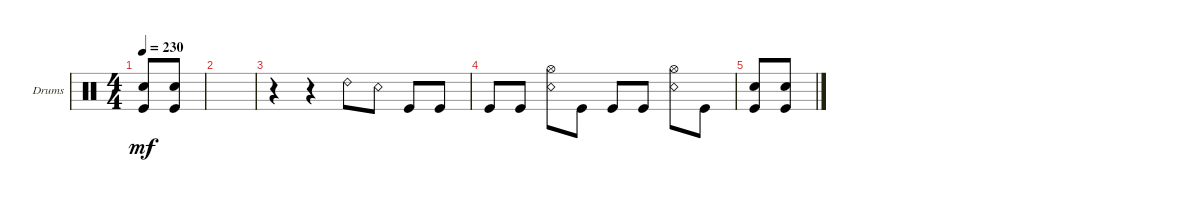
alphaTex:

\bracketExtendMode groupsimilarinstruments
\firstSystemTrackNameOrientation horizontal
\otherSystemsTrackNameOrientation horizontal
\track ("Drumkit" "Drums") {mute instrument percussion}
\staff {score}
\articulation defaults
\ts (4 4)
\tempo 230
\clef neutral
\ks c
("Kick (hit)" "Snare (hit) 2").8{dy mf} ("Kick (hit)" "Snare (hit) 2").8 |
|
r.4 r.4 "Ride (bell) 2".8 "Snare (rim shot)".8 "Kick (hit)".8 "Kick (hit)".8 |
"Kick (hit)".8 "Kick (hit)".8 ("Snare (rim shot)" "Hi-Hat (open)").8 "Kick (hit)".8 "Kick (hit)".8 "Kick (hit)".8 ("Snare (rim shot)" "Hi-Hat (open)").8 "Kick (hit)".8 |
("Kick (hit)" "Snare (hit) 2").8 ("Kick (hit)" "Snare (hit) 2").8
